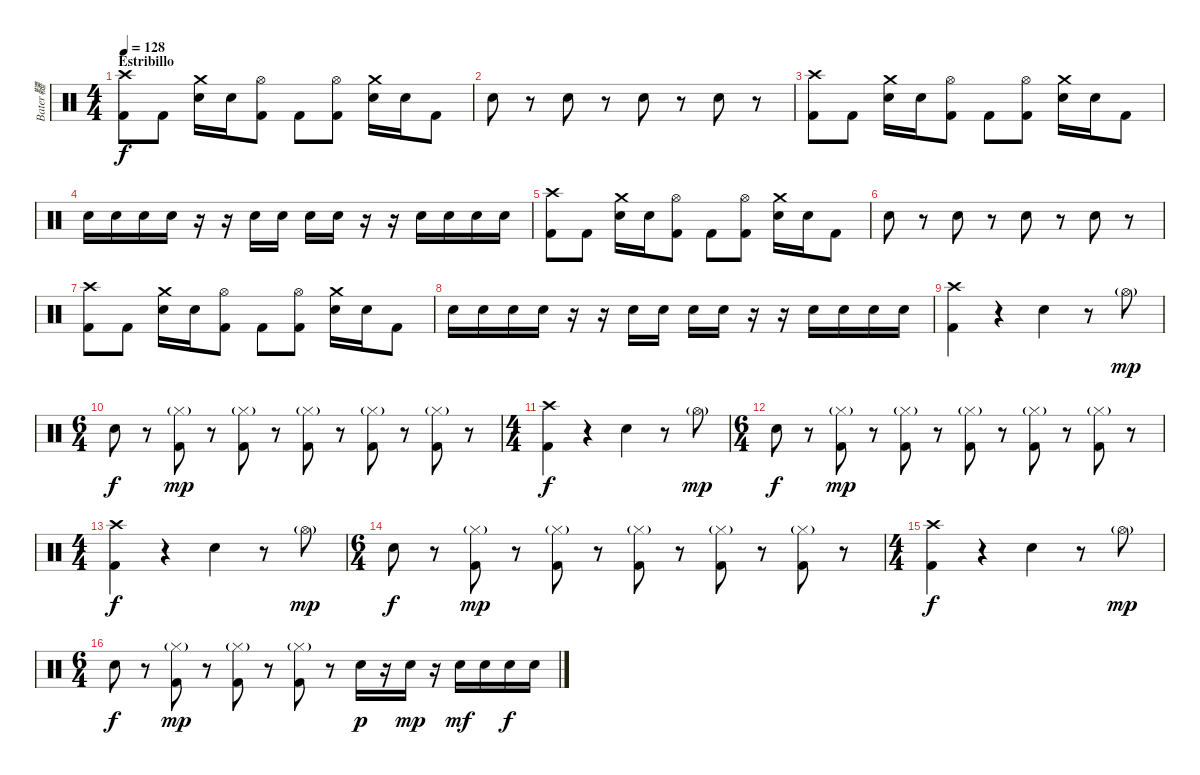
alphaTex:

\track ("Bater韆" "Bater韆") {instrument percussion}
\staff {score}
\articulation defaults
\ts (4 4)
\section ("" "Estribillo")
\tempo 128
\clef neutral
\ks c
("Crash high (hit)" "Kick (hit) 2").8{dy f} "Kick (hit) 2".8 ("Crash medium (hit)" "Electric Snare (hit)").16 "Electric Snare (hit)".16 ("Hi-Hat (open)" "Kick (hit) 2").8 "Kick (hit) 2".8 ("Hi-Hat (open)" "Kick (hit) 2").8 ("Crash medium (hit)" "Electric Snare (hit)").16 "Electric Snare (hit)".16 "Kick (hit) 2".8 |
"Electric Snare (hit)".8 r.8 "Electric Snare (hit)".8 r.8 "Electric Snare (hit)".8 r.8 "Electric Snare (hit)".8 r.8 |
("Crash high (hit)" "Kick (hit) 2").8 "Kick (hit) 2".8 ("Crash medium (hit)" "Electric Snare (hit)").16 "Electric Snare (hit)".16 ("Hi-Hat (open)" "Kick (hit) 2").8 "Kick (hit) 2".8 ("Hi-Hat (open)" "Kick (hit) 2").8 ("Crash medium (hit)" "Electric Snare (hit)").16 "Electric Snare (hit)".16 "Kick (hit) 2".8 |
"Electric Snare (hit)".16 "Electric Snare (hit)".16 "Electric Snare (hit)".16 "Electric Snare (hit)".16 r.16 r.16 "Electric Snare (hit)".16 "Electric Snare (hit)".16 "Electric Snare (hit)".16 "Electric Snare (hit)".16 r.16 r.16 "Electric Snare (hit)".16 "Electric Snare (hit)".16 "Electric Snare (hit)".16 "Electric Snare (hit)".16 |
("Crash high (hit)" "Kick (hit) 2").8 "Kick (hit) 2".8 ("Crash medium (hit)" "Electric Snare (hit)").16 "Electric Snare (hit)".16 ("Hi-Hat (open)" "Kick (hit) 2").8 "Kick (hit) 2".8 ("Hi-Hat (open)" "Kick (hit) 2").8 ("Crash medium (hit)" "Electric Snare (hit)").16 "Electric Snare (hit)".16 "Kick (hit) 2".8 |
"Electric Snare (hit)".8 r.8 "Electric Snare (hit)".8 r.8 "Electric Snare (hit)".8 r.8 "Electric Snare (hit)".8 r.8 |
("Crash high (hit)" "Kick (hit) 2").8 "Kick (hit) 2".8 ("Crash medium (hit)" "Electric Snare (hit)").16 "Electric Snare (hit)".16 ("Hi-Hat (open)" "Kick (hit) 2").8 "Kick (hit) 2".8 ("Hi-Hat (open)" "Kick (hit) 2").8 ("Crash medium (hit)" "Electric Snare (hit)").16 "Electric Snare (hit)".16 "Kick (hit) 2".8 |
"Electric Snare (hit)".16 "Electric Snare (hit)".16 "Electric Snare (hit)".16 "Electric Snare (hit)".16 r.16 r.16 "Electric Snare (hit)".16 "Electric Snare (hit)".16 "Electric Snare (hit)".16 "Electric Snare (hit)".16 r.16 r.16 "Electric Snare (hit)".16 "Electric Snare (hit)".16 "Electric Snare (hit)".16 "Electric Snare (hit)".16 |
("Crash high (hit)" "Kick (hit) 2").4 r.4 "Electric Snare (hit)".4 r.8 "Hi-Hat (open)"{g}.8{dy mp} |
\ts (6 4)
"Electric Snare (hit)".8{dy f} r.8 ("Hi-Hat (closed)"{g} "Kick (hit) 2").8{dy mp} r.8 ("Hi-Hat (closed)"{g} "Kick (hit) 2").8 r.8 ("Hi-Hat (closed)"{g} "Kick (hit) 2").8 r.8 ("Hi-Hat (closed)"{g} "Kick (hit) 2").8 r.8 ("Hi-Hat (closed)"{g} "Kick (hit) 2").8 r.8 |
\ts (4 4)
("Crash high (hit)" "Kick (hit) 2").4{dy f} r.4 "Electric Snare (hit)".4 r.8 "Hi-Hat (open)"{g}.8{dy mp} |
\ts (6 4)
"Electric Snare (hit)".8{dy f} r.8 ("Hi-Hat (closed)"{g} "Kick (hit) 2").8{dy mp} r.8 ("Hi-Hat (closed)"{g} "Kick (hit) 2").8 r.8 ("Hi-Hat (closed)"{g} "Kick (hit) 2").8 r.8 ("Hi-Hat (closed)"{g} "Kick (hit) 2").8 r.8 ("Hi-Hat (closed)"{g} "Kick (hit) 2").8 r.8 |
\ts (4 4)
("Crash high (hit)" "Kick (hit) 2").4{dy f} r.4 "Electric Snare (hit)".4 r.8 "Hi-Hat (open)"{g}.8{dy mp} |
\ts (6 4)
"Electric Snare (hit)".8{dy f} r.8 ("Hi-Hat (closed)"{g} "Kick (hit) 2").8{dy mp} r.8 ("Hi-Hat (closed)"{g} "Kick (hit) 2").8 r.8 ("Hi-Hat (closed)"{g} "Kick (hit) 2").8 r.8 ("Hi-Hat (closed)"{g} "Kick (hit) 2").8 r.8 ("Hi-Hat (closed)"{g} "Kick (hit) 2").8 r.8 |
\ts (4 4)
("Crash high (hit)" "Kick (hit) 2").4{dy f} r.4 "Electric Snare (hit)".4 r.8 "Hi-Hat (open)"{g}.8{dy mp} |
\ts (6 4)
"Electric Snare (hit)".8{dy f} r.8 ("Hi-Hat (closed)"{g} "Kick (hit) 2").8{dy mp} r.8 ("Hi-Hat (closed)"{g} "Kick (hit) 2").8 r.8 ("Hi-Hat (closed)"{g} "Kick (hit) 2").8 r.8 "Electric Snare (hit)".16{dy p} r.16 "Electric Snare (hit)".16{dy mp} r.16 "Electric Snare (hit)".16{dy mf} "Electric Snare (hit)".16 "Electric Snare (hit)".16{dy f} "Electric Snare (hit)".16
